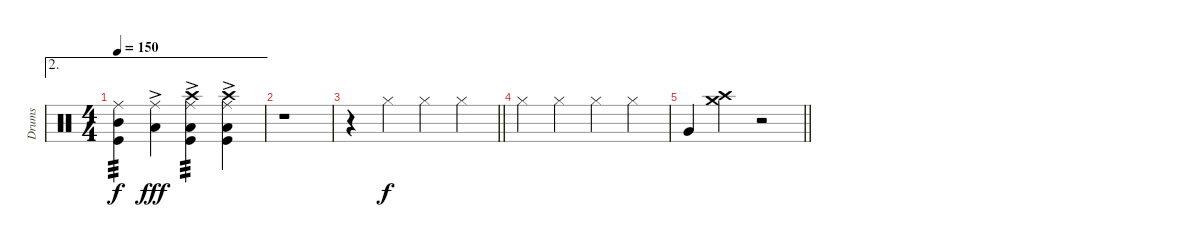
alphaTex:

\track ("Drums" "Drums") {instrument percussion}
\staff {score}
\articulation defaults
\ae 2
\ts (4 4)
\tempo 150
\clef neutral
\ks c
("Ride (middle)" "Mid Tom (hit)" "Kick (hit)").4{tp 3 dy f} ("Ride (middle)" "Low Tom (hit)"{ac}).4{dy fff} ("Ride (middle)" "Low Floor Tom (hit)"{ac} "Crash high (hit)" "Kick (hit)").4{tp 3} ("Ride (middle)" "Low Floor Tom (hit)"{ac} "Crash high (hit)" "Kick (hit)").4 |
r.1 |
\barLineRight lightlight
r.4 "Hi-Hat (closed)".4{dy f} "Hi-Hat (closed)".4 "Hi-Hat (closed)".4 |
"Hi-Hat (closed)".4 "Hi-Hat (closed)".4 "Hi-Hat (closed)".4 "Hi-Hat (closed)".4 |
\barLineRight lightlight "Very Low Tom (hit)".4
("Crash high (hit)" "Crash medium (hit)").4 r.2
